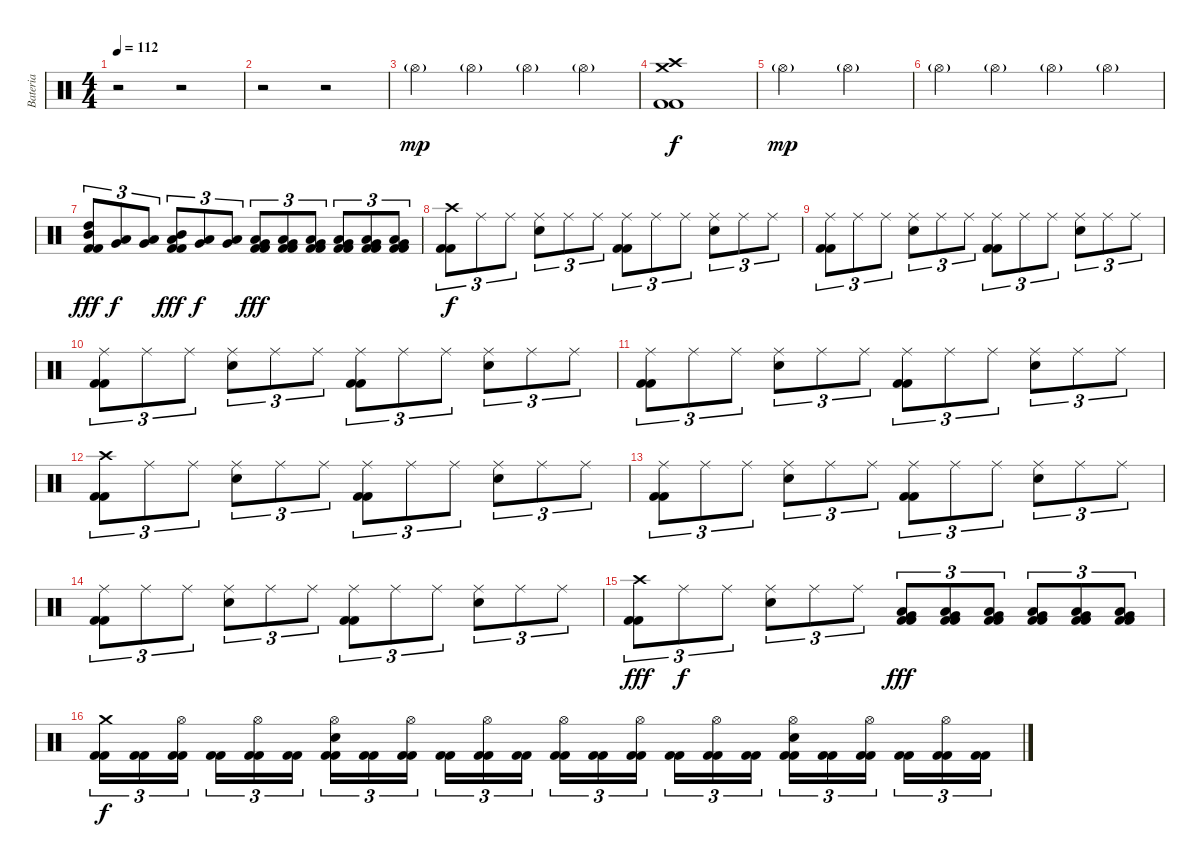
\track ("Bateria" "Bateria") {instrument percussion}
\staff {score}
\articulation defaults
\ts (4 4)
\tempo 112
\clef neutral
\ks c
r.2{dy f} r.2 |
r.2 r.2 |
"Hi-Hat (open)"{g}.4{dy mp} "Hi-Hat (open)"{g}.4 "Hi-Hat (open)"{g}.4 "Hi-Hat (open)"{g}.4 |
("Kick (hit) 2" "Kick (hit) 2" "Crash high (hit)" "Crash medium (hit)").1{dy f} |
"Hi-Hat (open)"{g}.2{dy mp} "Hi-Hat (open)"{g}.2 |
"Hi-Hat (open)"{g}.4 "Hi-Hat (open)"{g}.4 "Hi-Hat (open)"{g}.4 "Hi-Hat (open)"{g}.4 |
("Kick (hit) 2" "Kick (hit) 2" "High Tom (hit)" "Mid Tom (hit)").8{tu (3 2) dy fff} ("Low Tom (hit)" "Very Low Tom (hit)").8{tu (3 2) dy f} ("Low Tom (hit)" "Very Low Tom (hit)").8{tu (3 2)} ("Kick (hit) 2" "Kick (hit) 2" "Mid Tom (hit)" "Low Tom (hit)").8{tu (3 2) dy fff} ("Very Low Tom (hit)" "Low Floor Tom (hit)").8{tu (3 2) dy f} ("Very Low Tom (hit)" "Low Floor Tom (hit)").8{tu (3 2)} ("Kick (hit) 2" "Kick (hit) 2" "Very Low Tom (hit)" "Low Tom (hit)").8{tu (3 2) dy fff} ("Kick (hit) 2" "Kick (hit) 2" "Very Low Tom (hit)" "Low Tom (hit)").8{tu (3 2)} ("Kick (hit) 2" "Kick (hit) 2" "Very Low Tom (hit)" "Low Tom (hit)").8{tu (3 2)} ("Kick (hit) 2" "Kick (hit) 2" "Very Low Tom (hit)" "Low Tom (hit)").8{tu (3 2)} ("Kick (hit) 2" "Kick (hit) 2" "Very Low Tom (hit)" "Low Tom (hit)").8{tu (3 2)} ("Kick (hit) 2" "Kick (hit) 2" "Very Low Tom (hit)" "Low Tom (hit)").8{tu (3 2)} |
("Kick (hit) 2" "Kick (hit) 2" "Crash high (hit)").8{tu (3 2) dy f} "Ride (middle)".8{tu (3 2)} "Ride (middle)".8{tu (3 2)} ("Snare (hit) 2" "Ride (middle)").8{tu (3 2)} "Ride (middle)".8{tu (3 2)} "Ride (middle)".8{tu (3 2)} ("Kick (hit) 2" "Kick (hit) 2" "Ride (middle)").8{tu (3 2)} "Ride (middle)".8{tu (3 2)} "Ride (middle)".8{tu (3 2)} ("Snare (hit) 2" "Ride (middle)").8{tu (3 2)} "Ride (middle)".8{tu (3 2)} "Ride (middle)".8{tu (3 2)} |
("Kick (hit) 2" "Kick (hit) 2" "Ride (middle)").8{tu (3 2)} "Ride (middle)".8{tu (3 2)} "Ride (middle)".8{tu (3 2)} ("Snare (hit) 2" "Ride (middle)").8{tu (3 2)} "Ride (middle)".8{tu (3 2)} "Ride (middle)".8{tu (3 2)} ("Kick (hit) 2" "Kick (hit) 2" "Ride (middle)").8{tu (3 2)} "Ride (middle)".8{tu (3 2)} "Ride (middle)".8{tu (3 2)} ("Snare (hit) 2" "Ride (middle)").8{tu (3 2)} "Ride (middle)".8{tu (3 2)} "Ride (middle)".8{tu (3 2)} |
("Kick (hit) 2" "Kick (hit) 2" "Ride (middle)").8{tu (3 2)} "Ride (middle)".8{tu (3 2)} "Ride (middle)".8{tu (3 2)} ("Snare (hit) 2" "Ride (middle)").8{tu (3 2)} "Ride (middle)".8{tu (3 2)} "Ride (middle)".8{tu (3 2)} ("Kick (hit) 2" "Kick (hit) 2" "Ride (middle)").8{tu (3 2)} "Ride (middle)".8{tu (3 2)} "Ride (middle)".8{tu (3 2)} ("Snare (hit) 2" "Ride (middle)").8{tu (3 2)} "Ride (middle)".8{tu (3 2)} "Ride (middle)".8{tu (3 2)} |
("Kick (hit) 2" "Kick (hit) 2" "Ride (middle)").8{tu (3 2)} "Ride (middle)".8{tu (3 2)} "Ride (middle)".8{tu (3 2)} ("Snare (hit) 2" "Ride (middle)").8{tu (3 2)} "Ride (middle)".8{tu (3 2)} "Ride (middle)".8{tu (3 2)} ("Kick (hit) 2" "Kick (hit) 2" "Ride (middle)").8{tu (3 2)} "Ride (middle)".8{tu (3 2)} "Ride (middle)".8{tu (3 2)} ("Snare (hit) 2" "Ride (middle)").8{tu (3 2)} "Ride (middle)".8{tu (3 2)} "Ride (middle)".8{tu (3 2)} |
("Kick (hit) 2" "Kick (hit) 2" "Crash high (hit)").8{tu (3 2)} "Ride (middle)".8{tu (3 2)} "Ride (middle)".8{tu (3 2)} ("Snare (hit) 2" "Ride (middle)").8{tu (3 2)} "Ride (middle)".8{tu (3 2)} "Ride (middle)".8{tu (3 2)} ("Kick (hit) 2" "Kick (hit) 2" "Ride (middle)").8{tu (3 2)} "Ride (middle)".8{tu (3 2)} "Ride (middle)".8{tu (3 2)} ("Snare (hit) 2" "Ride (middle)").8{tu (3 2)} "Ride (middle)".8{tu (3 2)} "Ride (middle)".8{tu (3 2)} |
("Kick (hit) 2" "Kick (hit) 2" "Ride (middle)").8{tu (3 2)} "Ride (middle)".8{tu (3 2)} "Ride (middle)".8{tu (3 2)} ("Snare (hit) 2" "Ride (middle)").8{tu (3 2)} "Ride (middle)".8{tu (3 2)} "Ride (middle)".8{tu (3 2)} ("Kick (hit) 2" "Kick (hit) 2" "Ride (middle)").8{tu (3 2)} "Ride (middle)".8{tu (3 2)} "Ride (middle)".8{tu (3 2)} ("Snare (hit) 2" "Ride (middle)").8{tu (3 2)} "Ride (middle)".8{tu (3 2)} "Ride (middle)".8{tu (3 2)} |
("Kick (hit) 2" "Kick (hit) 2" "Ride (middle)").8{tu (3 2)} "Ride (middle)".8{tu (3 2)} "Ride (middle)".8{tu (3 2)} ("Snare (hit) 2" "Ride (middle)").8{tu (3 2)} "Ride (middle)".8{tu (3 2)} "Ride (middle)".8{tu (3 2)} ("Kick (hit) 2" "Kick (hit) 2" "Ride (middle)").8{tu (3 2)} "Ride (middle)".8{tu (3 2)} "Ride (middle)".8{tu (3 2)} ("Snare (hit) 2" "Ride (middle)").8{tu (3 2)} "Ride (middle)".8{tu (3 2)} "Ride (middle)".8{tu (3 2)} |
("Kick (hit) 2" "Kick (hit) 2" "Crash high (hit)").8{tu (3 2) dy fff} "Ride (middle)".8{tu (3 2) dy f} "Ride (middle)".8{tu (3 2)} ("Snare (hit) 2" "Ride (middle)").8{tu (3 2)} "Ride (middle)".8{tu (3 2)} "Ride (middle)".8{tu (3 2)} ("Kick (hit) 2" "Kick (hit) 2" "Very Low Tom (hit)" "Low Tom (hit)").8{tu (3 2) dy fff} ("Kick (hit) 2" "Kick (hit) 2" "Very Low Tom (hit)" "Low Tom (hit)").8{tu (3 2)} ("Kick (hit) 2" "Kick (hit) 2" "Very Low Tom (hit)" "Low Tom (hit)").8{tu (3 2)} ("Kick (hit) 2" "Kick (hit) 2" "Very Low Tom (hit)" "Low Tom (hit)").8{tu (3 2)} ("Kick (hit) 2" "Kick (hit) 2" "Very Low Tom (hit)" "Low Tom (hit)").8{tu (3 2)} ("Kick (hit) 2" "Kick (hit) 2" "Very Low Tom (hit)" "Low Tom (hit)").8{tu (3 2)} |
("Kick (hit) 2" "Kick (hit) 2" "Crash medium (hit)").16{tu (3 2) dy f} ("Kick (hit) 2" "Kick (hit) 2").16{tu (3 2)} ("Kick (hit) 2" "Kick (hit) 2" "Hi-Hat (open)").16{tu (3 2)} ("Kick (hit) 2" "Kick (hit) 2").16{tu (3 2)} ("Kick (hit) 2" "Kick (hit) 2" "Hi-Hat (open)").16{tu (3 2)} ("Kick (hit) 2" "Kick (hit) 2").16{tu (3 2)} ("Kick (hit) 2" "Kick (hit) 2" "Snare (hit) 2" "Hi-Hat (open)").16{tu (3 2)} ("Kick (hit) 2" "Kick (hit) 2").16{tu (3 2)} ("Kick (hit) 2" "Kick (hit) 2" "Hi-Hat (open)").16{tu (3 2)} ("Kick (hit) 2" "Kick (hit) 2").16{tu (3 2)} ("Kick (hit) 2" "Kick (hit) 2" "Hi-Hat (open)").16{tu (3 2)} ("Kick (hit) 2" "Kick (hit) 2").16{tu (3 2)} ("Kick (hit) 2" "Kick (hit) 2" "Hi-Hat (open)").16{tu (3 2)} ("Kick (hit) 2" "Kick (hit) 2").16{tu (3 2)} ("Kick (hit) 2" "Kick (hit) 2" "Hi-Hat (open)").16{tu (3 2)} ("Kick (hit) 2" "Kick (hit) 2").16{tu (3 2)} ("Kick (hit) 2" "Kick (hit) 2" "Hi-Hat (open)").16{tu (3 2)} ("Kick (hit) 2" "Kick (hit) 2").16{tu (3 2)} ("Kick (hit) 2" "Kick (hit) 2" "Snare (hit) 2" "Hi-Hat (open)").16{tu (3 2)} ("Kick (hit) 2" "Kick (hit) 2").16{tu (3 2)} ("Kick (hit) 2" "Kick (hit) 2" "Hi-Hat (open)").16{tu (3 2)} ("Kick (hit) 2" "Kick (hit) 2").16{tu (3 2)} ("Kick (hit) 2" "Kick (hit) 2" "Hi-Hat (open)").16{tu (3 2)} ("Kick (hit) 2" "Kick (hit) 2").16{tu (3 2)}
